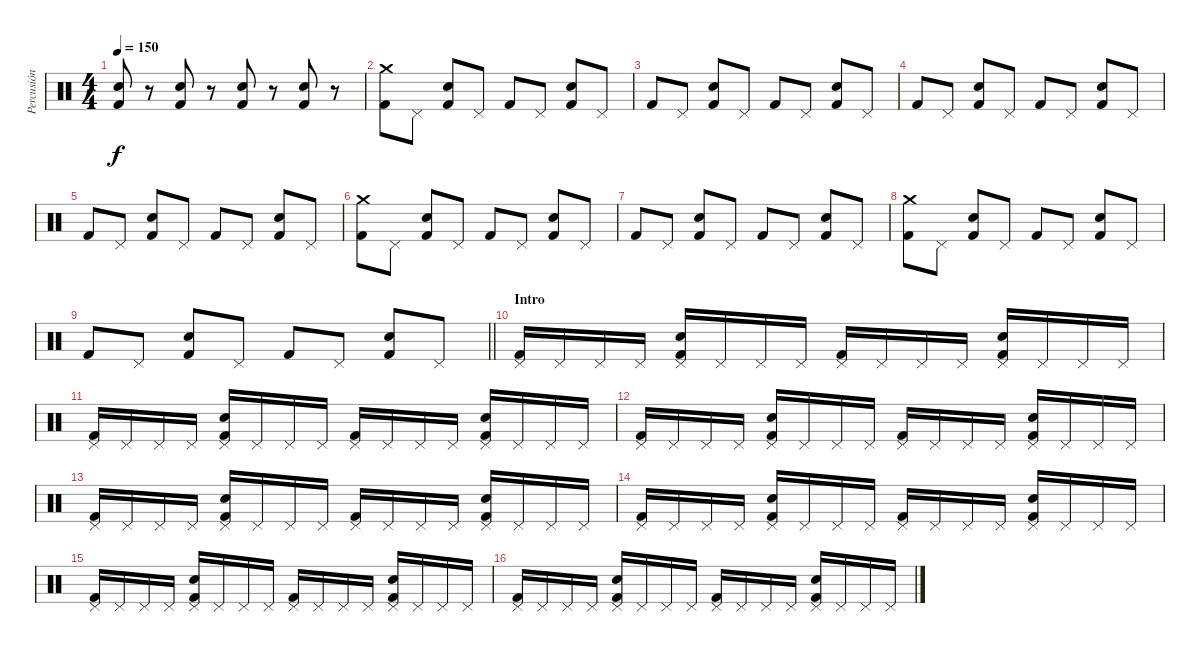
\track ("Percusión" "Percusión") {instrument percussion}
\staff {score}
\articulation defaults
\ts (4 4)
\tempo 150
\clef neutral
\ks c
("Electric Snare (hit)" "Kick (hit) 2").8{dy f} r.8 ("Electric Snare (hit)" "Kick (hit) 2").8 r.8 ("Electric Snare (hit)" "Kick (hit) 2").8 r.8 ("Electric Snare (hit)" "Kick (hit) 2").8 r.8 |
("Crash medium (hit)" "Kick (hit) 2").8 "Pedal Hi-Hat (hit)".8 ("Electric Snare (hit)" "Kick (hit) 2").8 "Pedal Hi-Hat (hit)".8 "Kick (hit) 2".8 "Pedal Hi-Hat (hit)".8 ("Electric Snare (hit)" "Kick (hit) 2").8 "Pedal Hi-Hat (hit)".8 |
"Kick (hit) 2".8 "Pedal Hi-Hat (hit)".8 ("Electric Snare (hit)" "Kick (hit) 2").8 "Pedal Hi-Hat (hit)".8 "Kick (hit) 2".8 "Pedal Hi-Hat (hit)".8 ("Electric Snare (hit)" "Kick (hit) 2").8 "Pedal Hi-Hat (hit)".8 |
"Kick (hit) 2".8 "Pedal Hi-Hat (hit)".8 ("Electric Snare (hit)" "Kick (hit) 2").8 "Pedal Hi-Hat (hit)".8 "Kick (hit) 2".8 "Pedal Hi-Hat (hit)".8 ("Electric Snare (hit)" "Kick (hit) 2").8 "Pedal Hi-Hat (hit)".8 |
"Kick (hit) 2".8 "Pedal Hi-Hat (hit)".8 ("Electric Snare (hit)" "Kick (hit) 2").8 "Pedal Hi-Hat (hit)".8 "Kick (hit) 2".8 "Pedal Hi-Hat (hit)".8 ("Electric Snare (hit)" "Kick (hit) 2").8 "Pedal Hi-Hat (hit)".8 |
("Crash medium (hit)" "Kick (hit) 2").8 "Pedal Hi-Hat (hit)".8 ("Electric Snare (hit)" "Kick (hit) 2").8 "Pedal Hi-Hat (hit)".8 "Kick (hit) 2".8 "Pedal Hi-Hat (hit)".8 ("Electric Snare (hit)" "Kick (hit) 2").8 "Pedal Hi-Hat (hit)".8 |
"Kick (hit) 2".8 "Pedal Hi-Hat (hit)".8 ("Electric Snare (hit)" "Kick (hit) 2").8 "Pedal Hi-Hat (hit)".8 "Kick (hit) 2".8 "Pedal Hi-Hat (hit)".8 ("Electric Snare (hit)" "Kick (hit) 2").8 "Pedal Hi-Hat (hit)".8 |
("Crash medium (hit)" "Kick (hit) 2").8 "Pedal Hi-Hat (hit)".8 ("Electric Snare (hit)" "Kick (hit) 2").8 "Pedal Hi-Hat (hit)".8 "Kick (hit) 2".8 "Pedal Hi-Hat (hit)".8 ("Electric Snare (hit)" "Kick (hit) 2").8 "Pedal Hi-Hat (hit)".8 |
\barLineRight lightlight "Kick (hit) 2".8 "Pedal Hi-Hat (hit)".8
("Electric Snare (hit)" "Kick (hit) 2").8 "Pedal Hi-Hat (hit)".8 "Kick (hit) 2".8 "Pedal Hi-Hat (hit)".8 ("Electric Snare (hit)" "Kick (hit) 2").8 "Pedal Hi-Hat (hit)".8 |
\section ("" "Intro")
("Pedal Hi-Hat (hit)" "Kick (hit) 2").16 "Pedal Hi-Hat (hit)".16 "Pedal Hi-Hat (hit)".16 "Pedal Hi-Hat (hit)".16 ("Pedal Hi-Hat (hit)" "Electric Snare (hit)" "Kick (hit) 2").16 "Pedal Hi-Hat (hit)".16 "Pedal Hi-Hat (hit)".16 "Pedal Hi-Hat (hit)".16 ("Pedal Hi-Hat (hit)" "Kick (hit) 2").16 "Pedal Hi-Hat (hit)".16 "Pedal Hi-Hat (hit)".16 "Pedal Hi-Hat (hit)".16 ("Pedal Hi-Hat (hit)" "Electric Snare (hit)" "Kick (hit) 2").16 "Pedal Hi-Hat (hit)".16 "Pedal Hi-Hat (hit)".16 "Pedal Hi-Hat (hit)".16 |
("Pedal Hi-Hat (hit)" "Kick (hit) 2").16 "Pedal Hi-Hat (hit)".16 "Pedal Hi-Hat (hit)".16 "Pedal Hi-Hat (hit)".16 ("Pedal Hi-Hat (hit)" "Electric Snare (hit)" "Kick (hit) 2").16 "Pedal Hi-Hat (hit)".16 "Pedal Hi-Hat (hit)".16 "Pedal Hi-Hat (hit)".16 ("Pedal Hi-Hat (hit)" "Kick (hit) 2").16 "Pedal Hi-Hat (hit)".16 "Pedal Hi-Hat (hit)".16 "Pedal Hi-Hat (hit)".16 ("Pedal Hi-Hat (hit)" "Electric Snare (hit)" "Kick (hit) 2").16 "Pedal Hi-Hat (hit)".16 "Pedal Hi-Hat (hit)".16 "Pedal Hi-Hat (hit)".16 |
("Pedal Hi-Hat (hit)" "Kick (hit) 2").16 "Pedal Hi-Hat (hit)".16 "Pedal Hi-Hat (hit)".16 "Pedal Hi-Hat (hit)".16 ("Pedal Hi-Hat (hit)" "Electric Snare (hit)" "Kick (hit) 2").16 "Pedal Hi-Hat (hit)".16 "Pedal Hi-Hat (hit)".16 "Pedal Hi-Hat (hit)".16 ("Pedal Hi-Hat (hit)" "Kick (hit) 2").16 "Pedal Hi-Hat (hit)".16 "Pedal Hi-Hat (hit)".16 "Pedal Hi-Hat (hit)".16 ("Pedal Hi-Hat (hit)" "Electric Snare (hit)" "Kick (hit) 2").16 "Pedal Hi-Hat (hit)".16 "Pedal Hi-Hat (hit)".16 "Pedal Hi-Hat (hit)".16 |
("Pedal Hi-Hat (hit)" "Kick (hit) 2").16 "Pedal Hi-Hat (hit)".16 "Pedal Hi-Hat (hit)".16 "Pedal Hi-Hat (hit)".16 ("Pedal Hi-Hat (hit)" "Electric Snare (hit)" "Kick (hit) 2").16 "Pedal Hi-Hat (hit)".16 "Pedal Hi-Hat (hit)".16 "Pedal Hi-Hat (hit)".16 ("Pedal Hi-Hat (hit)" "Kick (hit) 2").16 "Pedal Hi-Hat (hit)".16 "Pedal Hi-Hat (hit)".16 "Pedal Hi-Hat (hit)".16 ("Pedal Hi-Hat (hit)" "Electric Snare (hit)" "Kick (hit) 2").16 "Pedal Hi-Hat (hit)".16 "Pedal Hi-Hat (hit)".16 "Pedal Hi-Hat (hit)".16 |
("Pedal Hi-Hat (hit)" "Kick (hit) 2").16 "Pedal Hi-Hat (hit)".16 "Pedal Hi-Hat (hit)".16 "Pedal Hi-Hat (hit)".16 ("Pedal Hi-Hat (hit)" "Electric Snare (hit)" "Kick (hit) 2").16 "Pedal Hi-Hat (hit)".16 "Pedal Hi-Hat (hit)".16 "Pedal Hi-Hat (hit)".16 ("Pedal Hi-Hat (hit)" "Kick (hit) 2").16 "Pedal Hi-Hat (hit)".16 "Pedal Hi-Hat (hit)".16 "Pedal Hi-Hat (hit)".16 ("Pedal Hi-Hat (hit)" "Electric Snare (hit)" "Kick (hit) 2").16 "Pedal Hi-Hat (hit)".16 "Pedal Hi-Hat (hit)".16 "Pedal Hi-Hat (hit)".16 |
("Pedal Hi-Hat (hit)" "Kick (hit) 2").16 "Pedal Hi-Hat (hit)".16 "Pedal Hi-Hat (hit)".16 "Pedal Hi-Hat (hit)".16 ("Pedal Hi-Hat (hit)" "Electric Snare (hit)" "Kick (hit) 2").16 "Pedal Hi-Hat (hit)".16 "Pedal Hi-Hat (hit)".16 "Pedal Hi-Hat (hit)".16 ("Pedal Hi-Hat (hit)" "Kick (hit) 2").16 "Pedal Hi-Hat (hit)".16 "Pedal Hi-Hat (hit)".16 "Pedal Hi-Hat (hit)".16 ("Pedal Hi-Hat (hit)" "Electric Snare (hit)" "Kick (hit) 2").16 "Pedal Hi-Hat (hit)".16 "Pedal Hi-Hat (hit)".16 "Pedal Hi-Hat (hit)".16 |
("Pedal Hi-Hat (hit)" "Kick (hit) 2").16 "Pedal Hi-Hat (hit)".16 "Pedal Hi-Hat (hit)".16 "Pedal Hi-Hat (hit)".16 ("Pedal Hi-Hat (hit)" "Electric Snare (hit)" "Kick (hit) 2").16 "Pedal Hi-Hat (hit)".16 "Pedal Hi-Hat (hit)".16 "Pedal Hi-Hat (hit)".16 ("Pedal Hi-Hat (hit)" "Kick (hit) 2").16 "Pedal Hi-Hat (hit)".16 "Pedal Hi-Hat (hit)".16 "Pedal Hi-Hat (hit)".16 ("Pedal Hi-Hat (hit)" "Electric Snare (hit)" "Kick (hit) 2").16 "Pedal Hi-Hat (hit)".16 "Pedal Hi-Hat (hit)".16 "Pedal Hi-Hat (hit)".16
